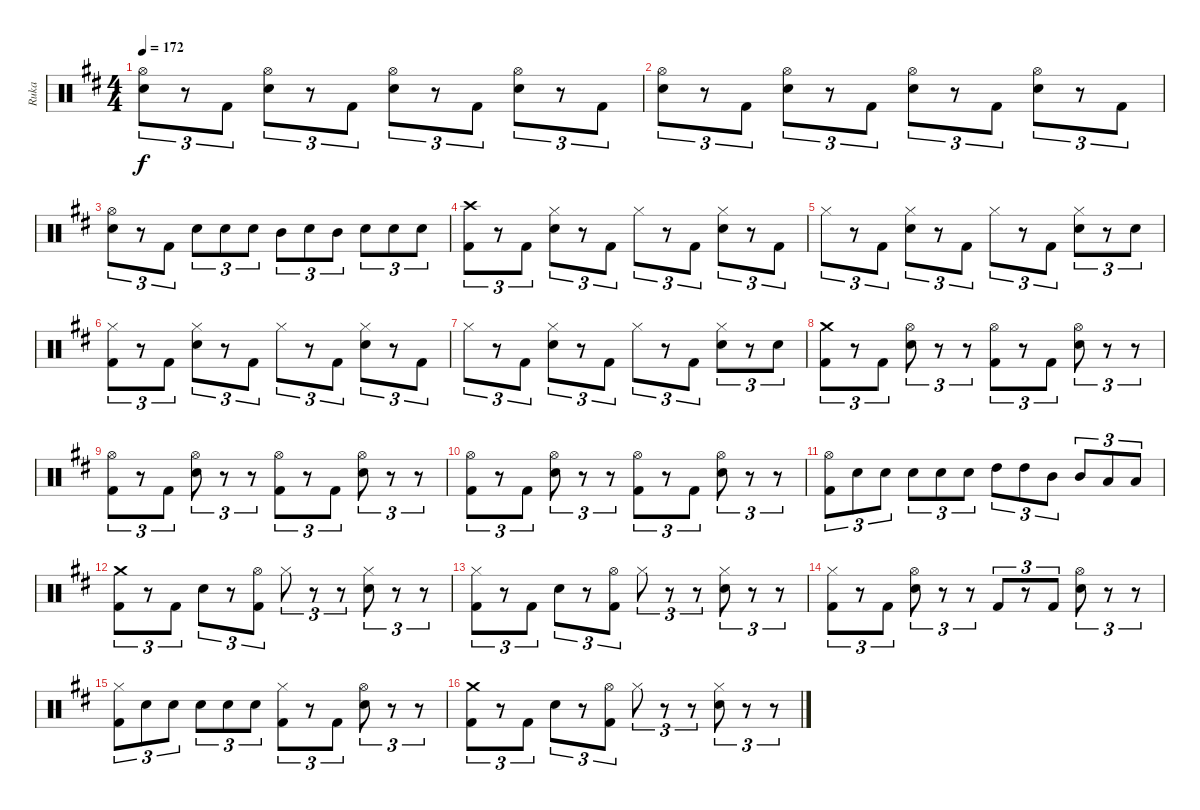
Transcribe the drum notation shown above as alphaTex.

\track ("Ruka" "Ruka") {instrument percussion}
\staff {score}
\articulation defaults
\ts (4 4)
\tempo 172
\clef neutral
\ks bminor
("Hi-Hat (open)" "Electric Snare (hit)").8{tu (3 2) dy f} r.8{tu (3 2)} "Kick (hit) 2".8{tu (3 2)} ("Electric Snare (hit)" "Hi-Hat (open)").8{tu (3 2)} r.8{tu (3 2)} "Kick (hit) 2".8{tu (3 2)} ("Electric Snare (hit)" "Hi-Hat (open)").8{tu (3 2)} r.8{tu (3 2)} "Kick (hit) 2".8{tu (3 2)} ("Electric Snare (hit)" "Hi-Hat (open)").8{tu (3 2)} r.8{tu (3 2)} "Kick (hit) 2".8{tu (3 2)} |
("Hi-Hat (open)" "Electric Snare (hit)").8{tu (3 2)} r.8{tu (3 2)} "Kick (hit) 2".8{tu (3 2)} ("Electric Snare (hit)" "Hi-Hat (open)").8{tu (3 2)} r.8{tu (3 2)} "Kick (hit) 2".8{tu (3 2)} ("Electric Snare (hit)" "Hi-Hat (open)").8{tu (3 2)} r.8{tu (3 2)} "Kick (hit) 2".8{tu (3 2)} ("Electric Snare (hit)" "Hi-Hat (open)").8{tu (3 2)} r.8{tu (3 2)} "Kick (hit) 2".8{tu (3 2)} |
("Hi-Hat (open)" "Electric Snare (hit)").8{tu (3 2)} r.8{tu (3 2)} "Kick (hit) 2".8{tu (3 2)} "Electric Snare (hit)".8{tu (3 2)} "Electric Snare (hit)".8{tu (3 2)} "Electric Snare (hit)".8{tu (3 2)} "Mid Tom (hit)".8{tu (3 2)} "Electric Snare (hit)".8{tu (3 2)} "Mid Tom (hit)".8{tu (3 2)} "Electric Snare (hit)".8{tu (3 2)} "Electric Snare (hit)".8{tu (3 2)} "Electric Snare (hit)".8{tu (3 2)} |
("Kick (hit) 2" "Crash high (hit)").8{tu (3 2)} r.8{tu (3 2)} "Kick (hit) 2".8{tu (3 2)} ("Electric Snare (hit)" "Hi-Hat (closed)").8{tu (3 2)} r.8{tu (3 2)} "Kick (hit) 2".8{tu (3 2)} "Hi-Hat (closed)".8{tu (3 2)} r.8{tu (3 2)} "Kick (hit) 2".8{tu (3 2)} ("Electric Snare (hit)" "Hi-Hat (closed)").8{tu (3 2)} r.8{tu (3 2)} "Kick (hit) 2".8{tu (3 2)} |
"Hi-Hat (closed)".8{tu (3 2)} r.8{tu (3 2)} "Kick (hit) 2".8{tu (3 2)} ("Electric Snare (hit)" "Hi-Hat (closed)").8{tu (3 2)} r.8{tu (3 2)} "Kick (hit) 2".8{tu (3 2)} "Hi-Hat (closed)".8{tu (3 2)} r.8{tu (3 2)} "Kick (hit) 2".8{tu (3 2)} ("Electric Snare (hit)" "Hi-Hat (closed)").8{tu (3 2)} r.8{tu (3 2)} "Electric Snare (hit)".8{tu (3 2)} |
("Hi-Hat (closed)" "Kick (hit) 2").8{tu (3 2)} r.8{tu (3 2)} "Kick (hit) 2".8{tu (3 2)} ("Electric Snare (hit)" "Hi-Hat (closed)").8{tu (3 2)} r.8{tu (3 2)} "Kick (hit) 2".8{tu (3 2)} "Hi-Hat (closed)".8{tu (3 2)} r.8{tu (3 2)} "Kick (hit) 2".8{tu (3 2)} ("Electric Snare (hit)" "Hi-Hat (closed)").8{tu (3 2)} r.8{tu (3 2)} "Kick (hit) 2".8{tu (3 2)} |
"Hi-Hat (closed)".8{tu (3 2)} r.8{tu (3 2)} "Kick (hit) 2".8{tu (3 2)} ("Electric Snare (hit)" "Hi-Hat (closed)").8{tu (3 2)} r.8{tu (3 2)} "Kick (hit) 2".8{tu (3 2)} "Hi-Hat (closed)".8{tu (3 2)} r.8{tu (3 2)} "Kick (hit) 2".8{tu (3 2)} ("Electric Snare (hit)" "Hi-Hat (closed)").8{tu (3 2)} r.8{tu (3 2)} "Electric Snare (hit)".8{tu (3 2)} |
("Kick (hit) 2" "Crash medium (hit)").8{tu (3 2)} r.8{tu (3 2)} "Kick (hit) 2".8{tu (3 2)} ("Electric Snare (hit)" "Hi-Hat (open)").8{tu (3 2)} r.8{tu (3 2)} r.8{tu (3 2)} ("Kick (hit) 2" "Hi-Hat (open)").8{tu (3 2)} r.8{tu (3 2)} "Kick (hit) 2".8{tu (3 2)} ("Electric Snare (hit)" "Hi-Hat (open)").8{tu (3 2)} r.8{tu (3 2)} r.8{tu (3 2)} |
("Kick (hit) 2" "Hi-Hat (open)").8{tu (3 2)} r.8{tu (3 2)} "Kick (hit) 2".8{tu (3 2)} ("Electric Snare (hit)" "Hi-Hat (open)").8{tu (3 2)} r.8{tu (3 2)} r.8{tu (3 2)} ("Kick (hit) 2" "Hi-Hat (open)").8{tu (3 2)} r.8{tu (3 2)} "Kick (hit) 2".8{tu (3 2)} ("Electric Snare (hit)" "Hi-Hat (open)").8{tu (3 2)} r.8{tu (3 2)} r.8{tu (3 2)} |
("Kick (hit) 2" "Hi-Hat (open)").8{tu (3 2)} r.8{tu (3 2)} "Kick (hit) 2".8{tu (3 2)} ("Electric Snare (hit)" "Hi-Hat (open)").8{tu (3 2)} r.8{tu (3 2)} r.8{tu (3 2)} ("Kick (hit) 2" "Hi-Hat (open)").8{tu (3 2)} r.8{tu (3 2)} "Kick (hit) 2".8{tu (3 2)} ("Electric Snare (hit)" "Hi-Hat (open)").8{tu (3 2)} r.8{tu (3 2)} r.8{tu (3 2)} |
("Kick (hit) 2" "Hi-Hat (open)").8{tu (3 2)} "Electric Snare (hit)".8{tu (3 2)} "Electric Snare (hit)".8{tu (3 2)} "Electric Snare (hit)".8{tu (3 2)} "Electric Snare (hit)".8{tu (3 2)} "Electric Snare (hit)".8{tu (3 2)} "High Tom (hit)".8{tu (3 2)} "High Tom (hit)".8{tu (3 2)} "Mid Tom (hit)".8{tu (3 2)} "Mid Tom (hit)".8{tu (3 2)} "Low Tom (hit)".8{tu (3 2)} "Low Tom (hit)".8{tu (3 2)} |
("Kick (hit) 2" "Crash medium (hit)").8{tu (3 2)} r.8{tu (3 2)} "Kick (hit) 2".8{tu (3 2)} "Electric Snare (hit)".8{tu (3 2)} r.8{tu (3 2)} ("Kick (hit) 2" "Hi-Hat (open)").8{tu (3 2)} "Hi-Hat (closed)".8{tu (3 2)} r.8{tu (3 2)} r.8{tu (3 2)} ("Hi-Hat (closed)" "Electric Snare (hit)").8{tu (3 2)} r.8{tu (3 2)} r.8{tu (3 2)} |
("Kick (hit) 2" "Hi-Hat (closed)").8{tu (3 2)} r.8{tu (3 2)} "Kick (hit) 2".8{tu (3 2)} "Electric Snare (hit)".8{tu (3 2)} r.8{tu (3 2)} ("Kick (hit) 2" "Hi-Hat (open)").8{tu (3 2)} "Hi-Hat (closed)".8{tu (3 2)} r.8{tu (3 2)} r.8{tu (3 2)} ("Hi-Hat (closed)" "Electric Snare (hit)").8{tu (3 2)} r.8{tu (3 2)} r.8{tu (3 2)} |
("Kick (hit) 2" "Hi-Hat (closed)").8{tu (3 2)} r.8{tu (3 2)} "Kick (hit) 2".8{tu (3 2)} ("Hi-Hat (open)" "Electric Snare (hit)").8{tu (3 2)} r.8{tu (3 2)} r.8{tu (3 2)} "Kick (hit) 2".8{tu (3 2)} r.8{tu (3 2)} "Kick (hit) 2".8{tu (3 2)} ("Hi-Hat (open)" "Electric Snare (hit)").8{tu (3 2)} r.8{tu (3 2)} r.8{tu (3 2)} |
("Kick (hit) 2" "Hi-Hat (closed)").8{tu (3 2)} "Electric Snare (hit)".8{tu (3 2)} "Electric Snare (hit)".8{tu (3 2)} "Electric Snare (hit)".8{tu (3 2)} "Electric Snare (hit)".8{tu (3 2)} "Electric Snare (hit)".8{tu (3 2)} ("Hi-Hat (closed)" "Kick (hit) 2").8{tu (3 2)} r.8{tu (3 2)} "Kick (hit) 2".8{tu (3 2)} ("Hi-Hat (open)" "Electric Snare (hit)").8{tu (3 2)} r.8{tu (3 2)} r.8{tu (3 2)} |
("Kick (hit) 2" "Crash medium (hit)").8{tu (3 2)} r.8{tu (3 2)} "Kick (hit) 2".8{tu (3 2)} "Electric Snare (hit)".8{tu (3 2)} r.8{tu (3 2)} ("Kick (hit) 2" "Hi-Hat (open)").8{tu (3 2)} "Hi-Hat (closed)".8{tu (3 2)} r.8{tu (3 2)} r.8{tu (3 2)} ("Hi-Hat (closed)" "Electric Snare (hit)").8{tu (3 2)} r.8{tu (3 2)} r.8{tu (3 2)}
